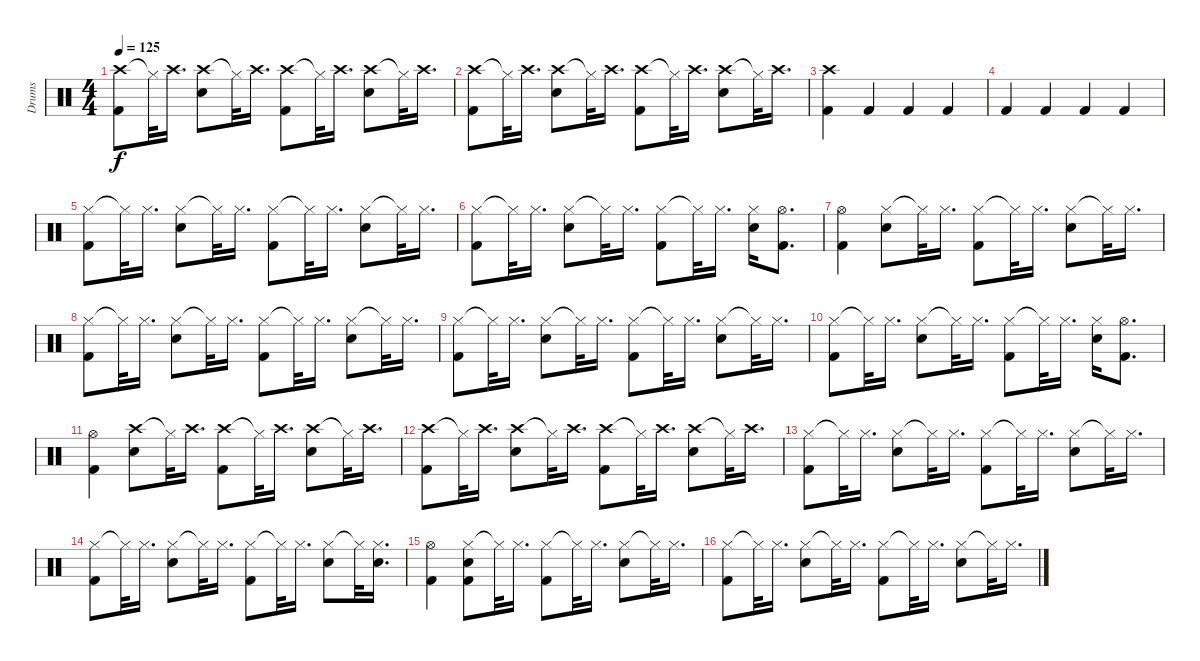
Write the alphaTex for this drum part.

\track ("Drums" "Drums") {instrument percussion}
\staff {score}
\articulation defaults
\ts (4 4)
\tempo 125
\clef neutral
\ks c
("Crash high (hit)" "Kick (hit) 2").8{dy f} "Hi-Hat (closed)"{t}.32 "Crash high (hit)".16{d} ("Crash high (hit)" "Electric Snare (hit)").8 "Hi-Hat (closed)"{t}.32 "Crash high (hit)".16{d} ("Crash high (hit)" "Kick (hit) 2").8 "Hi-Hat (closed)"{t}.32 "Crash high (hit)".16{d} ("Crash high (hit)" "Electric Snare (hit)").8 "Hi-Hat (closed)"{t}.32 "Crash high (hit)".16{d} |
("Crash high (hit)" "Kick (hit) 2").8 "Hi-Hat (closed)"{t}.32 "Crash high (hit)".16{d} ("Crash high (hit)" "Electric Snare (hit)").8 "Hi-Hat (closed)"{t}.32 "Crash high (hit)".16{d} ("Crash high (hit)" "Kick (hit) 2").8 "Hi-Hat (closed)"{t}.32 "Crash high (hit)".16{d} ("Crash high (hit)" "Electric Snare (hit)").8 "Hi-Hat (closed)"{t}.32 "Crash high (hit)".16{d} |
("Crash high (hit)" "Kick (hit) 2").4 "Kick (hit) 2".4 "Kick (hit) 2".4 "Kick (hit) 2".4 |
"Kick (hit) 2".4 "Kick (hit) 2".4 "Kick (hit) 2".4 "Kick (hit) 2".4 |
("Hi-Hat (closed)" "Kick (hit) 2").8 "Hi-Hat (closed)"{t}.32 "Hi-Hat (closed)".16{d} ("Hi-Hat (closed)" "Electric Snare (hit)").8 "Hi-Hat (closed)"{t}.32 "Hi-Hat (closed)".16{d} ("Hi-Hat (closed)" "Kick (hit) 2").8 "Hi-Hat (closed)"{t}.32 "Hi-Hat (closed)".16{d} ("Hi-Hat (closed)" "Electric Snare (hit)").8 "Hi-Hat (closed)"{t}.32 "Hi-Hat (closed)".16{d} |
("Hi-Hat (closed)" "Kick (hit) 2").8 "Hi-Hat (closed)"{t}.32 "Hi-Hat (closed)".16{d} ("Hi-Hat (closed)" "Electric Snare (hit)").8 "Hi-Hat (closed)"{t}.32 "Hi-Hat (closed)".16{d} ("Hi-Hat (closed)" "Kick (hit) 2").8 "Hi-Hat (closed)"{t}.32 "Hi-Hat (closed)".16{d} ("Hi-Hat (closed)" "Electric Snare (hit)").16 ("Hi-Hat (open)" "Kick (hit) 2").8{d} |
("Hi-Hat (open)" "Kick (hit) 2").4 ("Hi-Hat (closed)" "Electric Snare (hit)").8 "Hi-Hat (closed)"{t}.32 "Hi-Hat (closed)".16{d} ("Hi-Hat (closed)" "Kick (hit) 2").8 "Hi-Hat (closed)"{t}.32 "Hi-Hat (closed)".16{d} ("Hi-Hat (closed)" "Electric Snare (hit)").8 "Hi-Hat (closed)"{t}.32 "Hi-Hat (closed)".16{d} |
("Hi-Hat (closed)" "Kick (hit) 2").8 "Hi-Hat (closed)"{t}.32 "Hi-Hat (closed)".16{d} ("Hi-Hat (closed)" "Electric Snare (hit)").8 "Hi-Hat (closed)"{t}.32 "Hi-Hat (closed)".16{d} ("Hi-Hat (closed)" "Kick (hit) 2").8 "Hi-Hat (closed)"{t}.32 "Hi-Hat (closed)".16{d} ("Hi-Hat (closed)" "Electric Snare (hit)").8 "Hi-Hat (closed)"{t}.32 "Hi-Hat (closed)".16{d} |
("Hi-Hat (closed)" "Kick (hit) 2").8 "Hi-Hat (closed)"{t}.32 "Hi-Hat (closed)".16{d} ("Hi-Hat (closed)" "Electric Snare (hit)").8 "Hi-Hat (closed)"{t}.32 "Hi-Hat (closed)".16{d} ("Hi-Hat (closed)" "Kick (hit) 2").8 "Hi-Hat (closed)"{t}.32 "Hi-Hat (closed)".16{d} ("Hi-Hat (closed)" "Electric Snare (hit)").8 "Hi-Hat (closed)"{t}.32 "Hi-Hat (closed)".16{d} |
("Hi-Hat (closed)" "Kick (hit) 2").8 "Hi-Hat (closed)"{t}.32 "Hi-Hat (closed)".16{d} ("Hi-Hat (closed)" "Electric Snare (hit)").8 "Hi-Hat (closed)"{t}.32 "Hi-Hat (closed)".16{d} ("Hi-Hat (closed)" "Kick (hit) 2").8 "Hi-Hat (closed)"{t}.32 "Hi-Hat (closed)".16{d} ("Hi-Hat (closed)" "Electric Snare (hit)").16 ("Hi-Hat (open)" "Kick (hit) 2").8{d} |
("Hi-Hat (open)" "Kick (hit) 2").4 ("Crash high (hit)" "Electric Snare (hit)").8 "Hi-Hat (closed)"{t}.32 "Crash high (hit)".16{d} ("Crash high (hit)" "Kick (hit) 2").8 "Hi-Hat (closed)"{t}.32 "Crash high (hit)".16{d} ("Crash high (hit)" "Electric Snare (hit)").8 "Hi-Hat (closed)"{t}.32 "Crash high (hit)".16{d} |
("Crash high (hit)" "Kick (hit) 2").8 "Hi-Hat (closed)"{t}.32 "Crash high (hit)".16{d} ("Crash high (hit)" "Electric Snare (hit)").8 "Hi-Hat (closed)"{t}.32 "Crash high (hit)".16{d} ("Crash high (hit)" "Kick (hit) 2").8 "Hi-Hat (closed)"{t}.32 "Crash high (hit)".16{d} ("Crash high (hit)" "Electric Snare (hit)").8 "Hi-Hat (closed)"{t}.32 "Crash high (hit)".16{d} |
("Hi-Hat (closed)" "Kick (hit) 2").8 "Hi-Hat (closed)"{t}.32 "Hi-Hat (closed)".16{d} ("Hi-Hat (closed)" "Electric Snare (hit)").8 "Hi-Hat (closed)"{t}.32 "Hi-Hat (closed)".16{d} ("Hi-Hat (closed)" "Kick (hit) 2").8 "Hi-Hat (closed)"{t}.32 "Hi-Hat (closed)".16{d} ("Hi-Hat (closed)" "Electric Snare (hit)").8 "Hi-Hat (closed)"{t}.32 "Hi-Hat (closed)".16{d} |
("Hi-Hat (closed)" "Kick (hit) 2").8 "Hi-Hat (closed)"{t}.32 "Hi-Hat (closed)".16{d} ("Hi-Hat (closed)" "Electric Snare (hit)").8 "Hi-Hat (closed)"{t}.32 "Hi-Hat (closed)".16{d} ("Hi-Hat (closed)" "Kick (hit) 2").8 "Hi-Hat (closed)"{t}.32 "Hi-Hat (closed)".16{d} ("Hi-Hat (closed)" "Electric Snare (hit)").8 "Hi-Hat (closed)"{t}.32 ("Hi-Hat (closed)" "Electric Snare (hit)").16{d} |
("Hi-Hat (open)" "Kick (hit) 2").4 ("Hi-Hat (closed)" "Electric Snare (hit)" "Kick (hit) 2").8 "Hi-Hat (closed)"{t}.32 "Hi-Hat (closed)".16{d} ("Hi-Hat (closed)" "Kick (hit) 2").8 "Hi-Hat (closed)"{t}.32 "Hi-Hat (closed)".16{d} ("Hi-Hat (closed)" "Electric Snare (hit)").8 "Hi-Hat (closed)"{t}.32 "Hi-Hat (closed)".16{d} |
("Hi-Hat (closed)" "Kick (hit) 2").8 "Hi-Hat (closed)"{t}.32 "Hi-Hat (closed)".16{d} ("Hi-Hat (closed)" "Electric Snare (hit)").8 "Hi-Hat (closed)"{t}.32 "Hi-Hat (closed)".16{d} ("Hi-Hat (closed)" "Kick (hit) 2").8 "Hi-Hat (closed)"{t}.32 "Hi-Hat (closed)".16{d} ("Hi-Hat (closed)" "Electric Snare (hit)").8 "Hi-Hat (closed)"{t}.32 "Hi-Hat (closed)".16{d}
